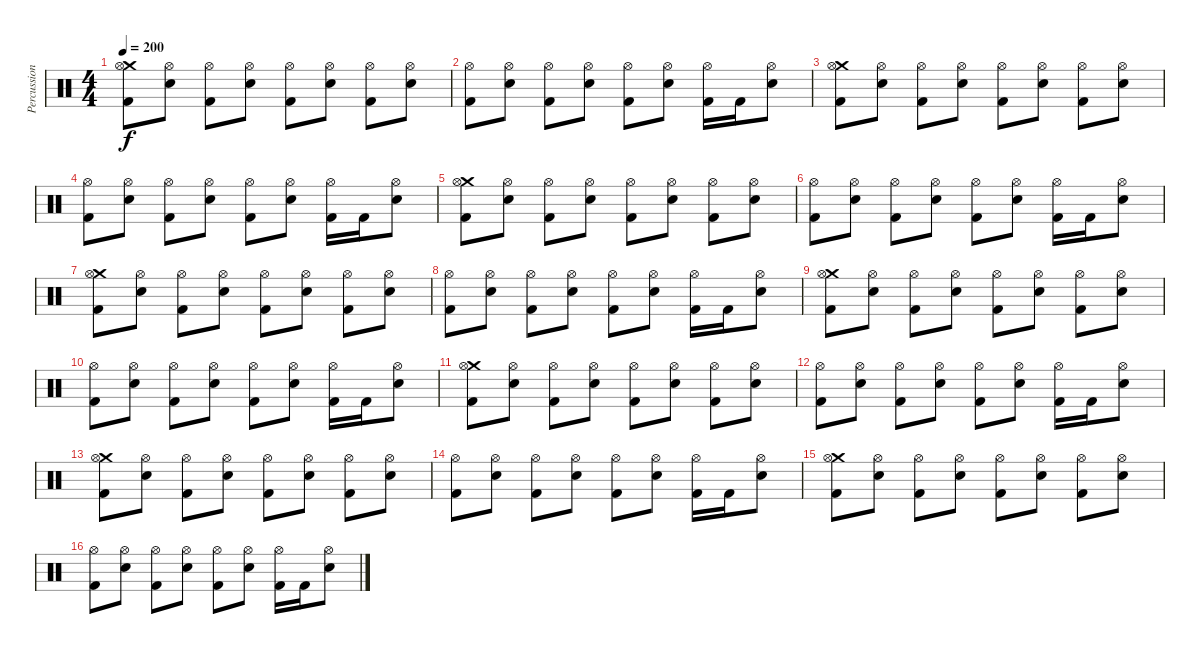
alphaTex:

\track ("Percussion" "Percussion") {instrument percussion}
\staff {score}
\articulation defaults
\ts (4 4)
\tempo 200
\clef neutral
\ks c
("Kick (hit) 2" "Crash medium (hit)" "Hi-Hat (open)").8{dy f} ("Electric Snare (hit)" "Hi-Hat (open)").8 ("Kick (hit) 2" "Hi-Hat (open)").8 ("Electric Snare (hit)" "Hi-Hat (open)").8 ("Kick (hit) 2" "Hi-Hat (open)").8 ("Electric Snare (hit)" "Hi-Hat (open)").8 ("Kick (hit) 2" "Hi-Hat (open)").8 ("Electric Snare (hit)" "Hi-Hat (open)").8 |
("Kick (hit) 2" "Hi-Hat (open)").8 ("Electric Snare (hit)" "Hi-Hat (open)").8 ("Kick (hit) 2" "Hi-Hat (open)").8 ("Electric Snare (hit)" "Hi-Hat (open)").8 ("Kick (hit) 2" "Hi-Hat (open)").8 ("Electric Snare (hit)" "Hi-Hat (open)").8 ("Kick (hit) 2" "Hi-Hat (open)").16 "Kick (hit) 2".16 ("Electric Snare (hit)" "Hi-Hat (open)").8 |
("Kick (hit) 2" "Crash medium (hit)" "Hi-Hat (open)").8 ("Electric Snare (hit)" "Hi-Hat (open)").8 ("Kick (hit) 2" "Hi-Hat (open)").8 ("Electric Snare (hit)" "Hi-Hat (open)").8 ("Kick (hit) 2" "Hi-Hat (open)").8 ("Electric Snare (hit)" "Hi-Hat (open)").8 ("Kick (hit) 2" "Hi-Hat (open)").8 ("Electric Snare (hit)" "Hi-Hat (open)").8 |
("Kick (hit) 2" "Hi-Hat (open)").8 ("Electric Snare (hit)" "Hi-Hat (open)").8 ("Kick (hit) 2" "Hi-Hat (open)").8 ("Electric Snare (hit)" "Hi-Hat (open)").8 ("Kick (hit) 2" "Hi-Hat (open)").8 ("Electric Snare (hit)" "Hi-Hat (open)").8 ("Kick (hit) 2" "Hi-Hat (open)").16 "Kick (hit) 2".16 ("Electric Snare (hit)" "Hi-Hat (open)").8 |
("Kick (hit) 2" "Crash medium (hit)" "Hi-Hat (open)").8 ("Electric Snare (hit)" "Hi-Hat (open)").8 ("Kick (hit) 2" "Hi-Hat (open)").8 ("Electric Snare (hit)" "Hi-Hat (open)").8 ("Kick (hit) 2" "Hi-Hat (open)").8 ("Electric Snare (hit)" "Hi-Hat (open)").8 ("Kick (hit) 2" "Hi-Hat (open)").8 ("Electric Snare (hit)" "Hi-Hat (open)").8 |
("Kick (hit) 2" "Hi-Hat (open)").8 ("Electric Snare (hit)" "Hi-Hat (open)").8 ("Kick (hit) 2" "Hi-Hat (open)").8 ("Electric Snare (hit)" "Hi-Hat (open)").8 ("Kick (hit) 2" "Hi-Hat (open)").8 ("Electric Snare (hit)" "Hi-Hat (open)").8 ("Kick (hit) 2" "Hi-Hat (open)").16 "Kick (hit) 2".16 ("Electric Snare (hit)" "Hi-Hat (open)").8 |
("Kick (hit) 2" "Crash medium (hit)" "Hi-Hat (open)").8 ("Electric Snare (hit)" "Hi-Hat (open)").8 ("Kick (hit) 2" "Hi-Hat (open)").8 ("Electric Snare (hit)" "Hi-Hat (open)").8 ("Kick (hit) 2" "Hi-Hat (open)").8 ("Electric Snare (hit)" "Hi-Hat (open)").8 ("Kick (hit) 2" "Hi-Hat (open)").8 ("Electric Snare (hit)" "Hi-Hat (open)").8 |
("Kick (hit) 2" "Hi-Hat (open)").8 ("Electric Snare (hit)" "Hi-Hat (open)").8 ("Kick (hit) 2" "Hi-Hat (open)").8 ("Electric Snare (hit)" "Hi-Hat (open)").8 ("Kick (hit) 2" "Hi-Hat (open)").8 ("Electric Snare (hit)" "Hi-Hat (open)").8 ("Kick (hit) 2" "Hi-Hat (open)").16 "Kick (hit) 2".16 ("Electric Snare (hit)" "Hi-Hat (open)").8 |
("Kick (hit) 2" "Crash medium (hit)" "Hi-Hat (open)").8 ("Electric Snare (hit)" "Hi-Hat (open)").8 ("Kick (hit) 2" "Hi-Hat (open)").8 ("Electric Snare (hit)" "Hi-Hat (open)").8 ("Kick (hit) 2" "Hi-Hat (open)").8 ("Electric Snare (hit)" "Hi-Hat (open)").8 ("Kick (hit) 2" "Hi-Hat (open)").8 ("Electric Snare (hit)" "Hi-Hat (open)").8 |
("Kick (hit) 2" "Hi-Hat (open)").8 ("Electric Snare (hit)" "Hi-Hat (open)").8 ("Kick (hit) 2" "Hi-Hat (open)").8 ("Electric Snare (hit)" "Hi-Hat (open)").8 ("Kick (hit) 2" "Hi-Hat (open)").8 ("Electric Snare (hit)" "Hi-Hat (open)").8 ("Kick (hit) 2" "Hi-Hat (open)").16 "Kick (hit) 2".16 ("Electric Snare (hit)" "Hi-Hat (open)").8 |
("Kick (hit) 2" "Crash medium (hit)" "Hi-Hat (open)").8 ("Electric Snare (hit)" "Hi-Hat (open)").8 ("Kick (hit) 2" "Hi-Hat (open)").8 ("Electric Snare (hit)" "Hi-Hat (open)").8 ("Kick (hit) 2" "Hi-Hat (open)").8 ("Electric Snare (hit)" "Hi-Hat (open)").8 ("Kick (hit) 2" "Hi-Hat (open)").8 ("Electric Snare (hit)" "Hi-Hat (open)").8 |
("Kick (hit) 2" "Hi-Hat (open)").8 ("Electric Snare (hit)" "Hi-Hat (open)").8 ("Kick (hit) 2" "Hi-Hat (open)").8 ("Electric Snare (hit)" "Hi-Hat (open)").8 ("Kick (hit) 2" "Hi-Hat (open)").8 ("Electric Snare (hit)" "Hi-Hat (open)").8 ("Kick (hit) 2" "Hi-Hat (open)").16 "Kick (hit) 2".16 ("Electric Snare (hit)" "Hi-Hat (open)").8 |
("Kick (hit) 2" "Crash medium (hit)" "Hi-Hat (open)").8 ("Electric Snare (hit)" "Hi-Hat (open)").8 ("Kick (hit) 2" "Hi-Hat (open)").8 ("Electric Snare (hit)" "Hi-Hat (open)").8 ("Kick (hit) 2" "Hi-Hat (open)").8 ("Electric Snare (hit)" "Hi-Hat (open)").8 ("Kick (hit) 2" "Hi-Hat (open)").8 ("Electric Snare (hit)" "Hi-Hat (open)").8 |
("Kick (hit) 2" "Hi-Hat (open)").8 ("Electric Snare (hit)" "Hi-Hat (open)").8 ("Kick (hit) 2" "Hi-Hat (open)").8 ("Electric Snare (hit)" "Hi-Hat (open)").8 ("Kick (hit) 2" "Hi-Hat (open)").8 ("Electric Snare (hit)" "Hi-Hat (open)").8 ("Kick (hit) 2" "Hi-Hat (open)").16 "Kick (hit) 2".16 ("Electric Snare (hit)" "Hi-Hat (open)").8 |
("Kick (hit) 2" "Crash medium (hit)" "Hi-Hat (open)").8 ("Electric Snare (hit)" "Hi-Hat (open)").8 ("Kick (hit) 2" "Hi-Hat (open)").8 ("Electric Snare (hit)" "Hi-Hat (open)").8 ("Kick (hit) 2" "Hi-Hat (open)").8 ("Electric Snare (hit)" "Hi-Hat (open)").8 ("Kick (hit) 2" "Hi-Hat (open)").8 ("Electric Snare (hit)" "Hi-Hat (open)").8 |
("Kick (hit) 2" "Hi-Hat (open)").8 ("Electric Snare (hit)" "Hi-Hat (open)").8 ("Kick (hit) 2" "Hi-Hat (open)").8 ("Electric Snare (hit)" "Hi-Hat (open)").8 ("Kick (hit) 2" "Hi-Hat (open)").8 ("Electric Snare (hit)" "Hi-Hat (open)").8 ("Kick (hit) 2" "Hi-Hat (open)").16 "Kick (hit) 2".16 ("Electric Snare (hit)" "Hi-Hat (open)").8
